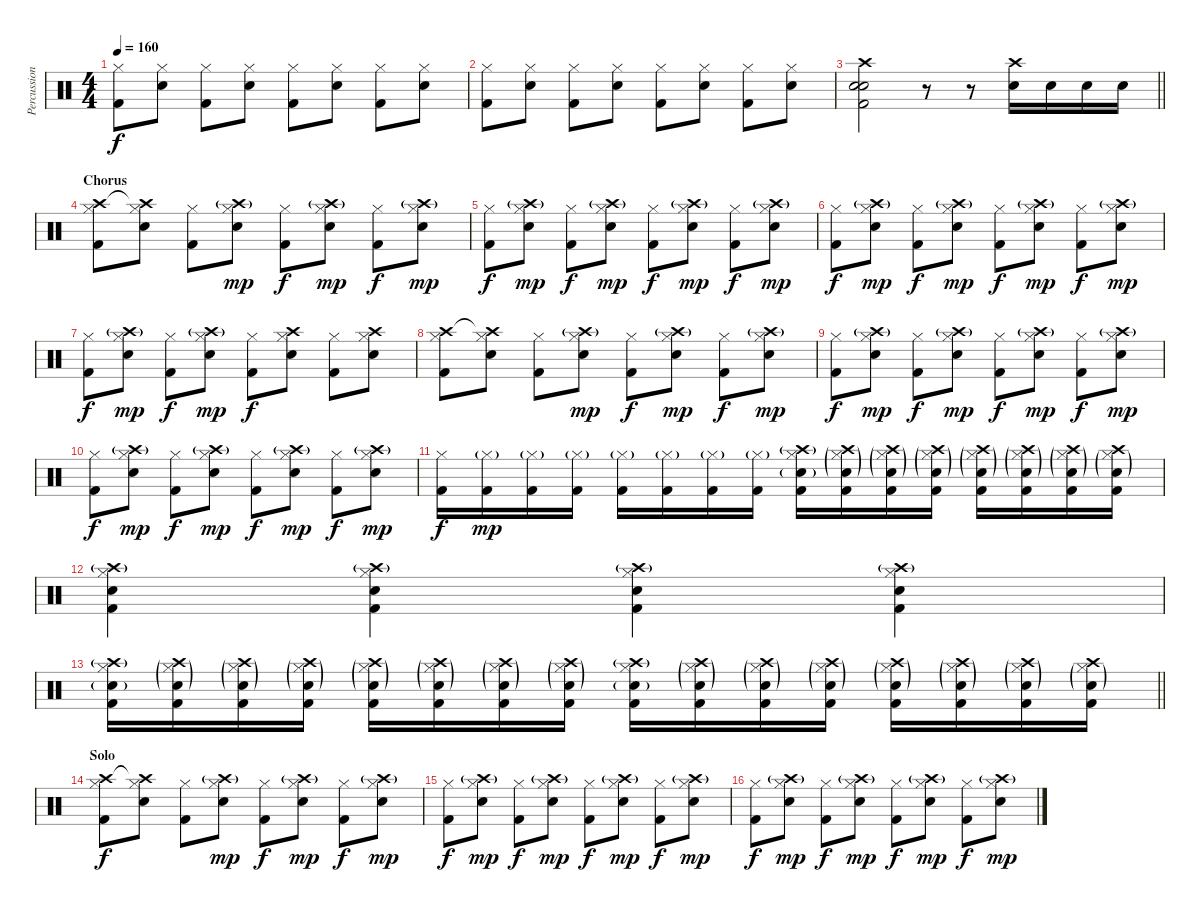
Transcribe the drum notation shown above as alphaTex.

\track ("Percussion" "Percussion") {instrument percussion}
\staff {score}
\articulation defaults
\ts (4 4)
\tempo 160
\clef neutral
\ks c
("Hi-Hat (closed)" "Kick (hit) 2").8{dy f} ("Hi-Hat (closed)" "Snare (hit) 2").8 ("Hi-Hat (closed)" "Kick (hit) 2").8 ("Hi-Hat (closed)" "Snare (hit) 2").8 ("Hi-Hat (closed)" "Kick (hit) 2").8 ("Hi-Hat (closed)" "Snare (hit) 2").8 ("Hi-Hat (closed)" "Kick (hit) 2").8 ("Hi-Hat (closed)" "Snare (hit) 2").8 |
("Hi-Hat (closed)" "Kick (hit) 2").8 ("Hi-Hat (closed)" "Snare (hit) 2").8 ("Hi-Hat (closed)" "Kick (hit) 2").8 ("Hi-Hat (closed)" "Snare (hit) 2").8 ("Hi-Hat (closed)" "Kick (hit) 2").8 ("Hi-Hat (closed)" "Snare (hit) 2").8 ("Hi-Hat (closed)" "Kick (hit) 2").8 ("Hi-Hat (closed)" "Snare (hit) 2").8 |
\barLineRight lightlight
("Electric Snare (hit)" "Kick (hit) 2" "Crash high (hit)" "Snare (hit) 2").2 r.8 r.8 ("Crash high (hit)" "Snare (hit) 2").16 "Snare (hit) 2".16 "Snare (hit) 2".16 "Snare (hit) 2".16 |
\section ("" "Chorus")
("Crash high (hit)" "Hi-Hat (closed)" "Kick (hit) 2").8 ("Crash high (hit)"{t} "Hi-Hat (closed)" "Snare (hit) 2").8 ("Hi-Hat (closed)" "Kick (hit) 2").8 ("Crash high (hit)"{g} "Hi-Hat (closed)" "Snare (hit) 2").8{dy mp} ("Hi-Hat (closed)" "Kick (hit) 2").8{dy f} ("Crash high (hit)"{g} "Hi-Hat (closed)" "Snare (hit) 2").8{dy mp} ("Hi-Hat (closed)" "Kick (hit) 2").8{dy f} ("Crash high (hit)"{g} "Hi-Hat (closed)" "Snare (hit) 2").8{dy mp} |
("Hi-Hat (closed)" "Kick (hit) 2").8{dy f} ("Crash high (hit)"{g} "Hi-Hat (closed)" "Snare (hit) 2").8{dy mp} ("Hi-Hat (closed)" "Kick (hit) 2").8{dy f} ("Crash high (hit)"{g} "Hi-Hat (closed)" "Snare (hit) 2").8{dy mp} ("Hi-Hat (closed)" "Kick (hit) 2").8{dy f} ("Crash high (hit)"{g} "Hi-Hat (closed)" "Snare (hit) 2").8{dy mp} ("Hi-Hat (closed)" "Kick (hit) 2").8{dy f} ("Crash high (hit)"{g} "Hi-Hat (closed)" "Snare (hit) 2").8{dy mp} |
("Hi-Hat (closed)" "Kick (hit) 2").8{dy f} ("Crash high (hit)"{g} "Hi-Hat (closed)" "Snare (hit) 2").8{dy mp} ("Hi-Hat (closed)" "Kick (hit) 2").8{dy f} ("Crash high (hit)"{g} "Hi-Hat (closed)" "Snare (hit) 2").8{dy mp} ("Hi-Hat (closed)" "Kick (hit) 2").8{dy f} ("Crash high (hit)"{g} "Hi-Hat (closed)" "Snare (hit) 2").8{dy mp} ("Hi-Hat (closed)" "Kick (hit) 2").8{dy f} ("Crash high (hit)"{g} "Hi-Hat (closed)" "Snare (hit) 2").8{dy mp} |
("Hi-Hat (closed)" "Kick (hit) 2").8{dy f} ("Crash high (hit)"{g} "Hi-Hat (closed)" "Snare (hit) 2").8{dy mp} ("Hi-Hat (closed)" "Kick (hit) 2").8{dy f} ("Crash high (hit)"{g} "Hi-Hat (closed)" "Snare (hit) 2").8{dy mp} ("Hi-Hat (closed)" "Kick (hit) 2").8{dy f} ("Crash high (hit)" "Hi-Hat (closed)" "Snare (hit) 2").8 ("Hi-Hat (closed)" "Kick (hit) 2").8 ("Crash high (hit)" "Hi-Hat (closed)" "Snare (hit) 2").8 |
("Crash high (hit)" "Hi-Hat (closed)" "Kick (hit) 2").8 ("Crash high (hit)"{t} "Hi-Hat (closed)" "Snare (hit) 2").8 ("Hi-Hat (closed)" "Kick (hit) 2").8 ("Crash high (hit)"{g} "Hi-Hat (closed)" "Snare (hit) 2").8{dy mp} ("Hi-Hat (closed)" "Kick (hit) 2").8{dy f} ("Crash high (hit)"{g} "Hi-Hat (closed)" "Snare (hit) 2").8{dy mp} ("Hi-Hat (closed)" "Kick (hit) 2").8{dy f} ("Crash high (hit)"{g} "Hi-Hat (closed)" "Snare (hit) 2").8{dy mp} |
("Hi-Hat (closed)" "Kick (hit) 2").8{dy f} ("Crash high (hit)"{g} "Hi-Hat (closed)" "Snare (hit) 2").8{dy mp} ("Hi-Hat (closed)" "Kick (hit) 2").8{dy f} ("Crash high (hit)"{g} "Hi-Hat (closed)" "Snare (hit) 2").8{dy mp} ("Hi-Hat (closed)" "Kick (hit) 2").8{dy f} ("Crash high (hit)"{g} "Hi-Hat (closed)" "Snare (hit) 2").8{dy mp} ("Hi-Hat (closed)" "Kick (hit) 2").8{dy f} ("Crash high (hit)"{g} "Hi-Hat (closed)" "Snare (hit) 2").8{dy mp} |
("Hi-Hat (closed)" "Kick (hit) 2").8{dy f} ("Crash high (hit)"{g} "Hi-Hat (closed)" "Snare (hit) 2").8{dy mp} ("Hi-Hat (closed)" "Kick (hit) 2").8{dy f} ("Crash high (hit)"{g} "Hi-Hat (closed)" "Snare (hit) 2").8{dy mp} ("Hi-Hat (closed)" "Kick (hit) 2").8{dy f} ("Crash high (hit)"{g} "Hi-Hat (closed)" "Snare (hit) 2").8{dy mp} ("Hi-Hat (closed)" "Kick (hit) 2").8{dy f} ("Crash high (hit)"{g} "Hi-Hat (closed)" "Snare (hit) 2").8{dy mp} |
("Hi-Hat (closed)" "Kick (hit) 2").16{dy f} ("Hi-Hat (closed)"{g} "Kick (hit) 2").16{dy mp} ("Hi-Hat (closed)"{g} "Kick (hit) 2").16 ("Hi-Hat (closed)"{g} "Kick (hit) 2").16 ("Hi-Hat (closed)"{g} "Kick (hit) 2").16 ("Hi-Hat (closed)"{g} "Kick (hit) 2").16 ("Hi-Hat (closed)"{g} "Kick (hit) 2").16 ("Hi-Hat (closed)"{g} "Kick (hit) 2").16 ("Crash high (hit)"{g} "Electric Snare (hit)"{g} "Hi-Hat (closed)" "Kick (hit) 2").16 ("Crash high (hit)"{g} "Electric Snare (hit)"{g} "Hi-Hat (closed)"{g} "Kick (hit) 2").16 ("Crash high (hit)"{g} "Electric Snare (hit)"{g} "Hi-Hat (closed)"{g} "Kick (hit) 2").16 ("Crash high (hit)"{g} "Electric Snare (hit)"{g} "Hi-Hat (closed)"{g} "Kick (hit) 2").16 ("Crash high (hit)"{g} "Electric Snare (hit)"{g} "Hi-Hat (closed)"{g} "Kick (hit) 2").16 ("Crash high (hit)"{g} "Electric Snare (hit)"{g} "Hi-Hat (closed)"{g} "Kick (hit) 2").16 ("Crash high (hit)"{g} "Electric Snare (hit)"{g} "Hi-Hat (closed)"{g} "Kick (hit) 2").16 ("Crash high (hit)" "Electric Snare (hit)"{g} "Hi-Hat (closed)"{g} "Kick (hit) 2").16 |
("Hi-Hat (closed)" "Crash high (hit)"{g} "Snare (hit) 2" "Kick (hit) 2").4 ("Hi-Hat (closed)" "Crash high (hit)"{g} "Snare (hit) 2" "Kick (hit) 2").4 ("Hi-Hat (closed)" "Crash high (hit)"{g} "Snare (hit) 2" "Kick (hit) 2").4 ("Hi-Hat (closed)" "Crash high (hit)"{g} "Snare (hit) 2" "Kick (hit) 2").4 |
\barLineRight lightlight
("Crash high (hit)"{g} "Electric Snare (hit)"{g} "Hi-Hat (closed)" "Kick (hit) 2").16 ("Crash high (hit)"{g} "Electric Snare (hit)"{g} "Hi-Hat (closed)"{g} "Kick (hit) 2").16 ("Crash high (hit)"{g} "Electric Snare (hit)"{g} "Hi-Hat (closed)"{g} "Kick (hit) 2").16 ("Crash high (hit)"{g} "Electric Snare (hit)"{g} "Hi-Hat (closed)"{g} "Kick (hit) 2").16 ("Crash high (hit)"{g} "Electric Snare (hit)"{g} "Hi-Hat (closed)"{g} "Kick (hit) 2").16 ("Crash high (hit)"{g} "Electric Snare (hit)"{g} "Hi-Hat (closed)"{g} "Kick (hit) 2").16 ("Crash high (hit)"{g} "Electric Snare (hit)"{g} "Hi-Hat (closed)"{g} "Kick (hit) 2").16 ("Crash high (hit)"{g} "Electric Snare (hit)"{g} "Hi-Hat (closed)"{g} "Kick (hit) 2").16 ("Crash high (hit)"{g} "Electric Snare (hit)"{g} "Hi-Hat (closed)" "Kick (hit) 2").16 ("Crash high (hit)"{g} "Electric Snare (hit)"{g} "Hi-Hat (closed)"{g} "Kick (hit) 2").16 ("Crash high (hit)"{g} "Electric Snare (hit)"{g} "Hi-Hat (closed)"{g} "Kick (hit) 2").16 ("Crash high (hit)"{g} "Electric Snare (hit)"{g} "Hi-Hat (closed)"{g} "Kick (hit) 2").16 ("Crash high (hit)"{g} "Electric Snare (hit)"{g} "Hi-Hat (closed)"{g} "Kick (hit) 2").16 ("Crash high (hit)"{g} "Electric Snare (hit)"{g} "Hi-Hat (closed)"{g} "Kick (hit) 2").16 ("Crash high (hit)"{g} "Electric Snare (hit)"{g} "Hi-Hat (closed)"{g} "Kick (hit) 2").16 ("Crash high (hit)" "Electric Snare (hit)"{g} "Hi-Hat (closed)"{g} "Kick (hit) 2").16 |
\section ("" "Solo")
("Crash high (hit)" "Hi-Hat (closed)" "Kick (hit) 2").8{dy f} ("Crash high (hit)"{t} "Hi-Hat (closed)" "Snare (hit) 2").8 ("Hi-Hat (closed)" "Kick (hit) 2").8 ("Crash high (hit)"{g} "Hi-Hat (closed)" "Snare (hit) 2").8{dy mp} ("Hi-Hat (closed)" "Kick (hit) 2").8{dy f} ("Crash high (hit)"{g} "Hi-Hat (closed)" "Snare (hit) 2").8{dy mp} ("Hi-Hat (closed)" "Kick (hit) 2").8{dy f} ("Crash high (hit)"{g} "Hi-Hat (closed)" "Snare (hit) 2").8{dy mp} |
("Hi-Hat (closed)" "Kick (hit) 2").8{dy f} ("Crash high (hit)"{g} "Hi-Hat (closed)" "Snare (hit) 2").8{dy mp} ("Hi-Hat (closed)" "Kick (hit) 2").8{dy f} ("Crash high (hit)"{g} "Hi-Hat (closed)" "Snare (hit) 2").8{dy mp} ("Hi-Hat (closed)" "Kick (hit) 2").8{dy f} ("Crash high (hit)"{g} "Hi-Hat (closed)" "Snare (hit) 2").8{dy mp} ("Hi-Hat (closed)" "Kick (hit) 2").8{dy f} ("Crash high (hit)"{g} "Hi-Hat (closed)" "Snare (hit) 2").8{dy mp} |
("Hi-Hat (closed)" "Kick (hit) 2").8{dy f} ("Crash high (hit)"{g} "Hi-Hat (closed)" "Snare (hit) 2").8{dy mp} ("Hi-Hat (closed)" "Kick (hit) 2").8{dy f} ("Crash high (hit)"{g} "Hi-Hat (closed)" "Snare (hit) 2").8{dy mp} ("Hi-Hat (closed)" "Kick (hit) 2").8{dy f} ("Crash high (hit)"{g} "Hi-Hat (closed)" "Snare (hit) 2").8{dy mp} ("Hi-Hat (closed)" "Kick (hit) 2").8{dy f} ("Crash high (hit)"{g} "Hi-Hat (closed)" "Snare (hit) 2").8{dy mp}
